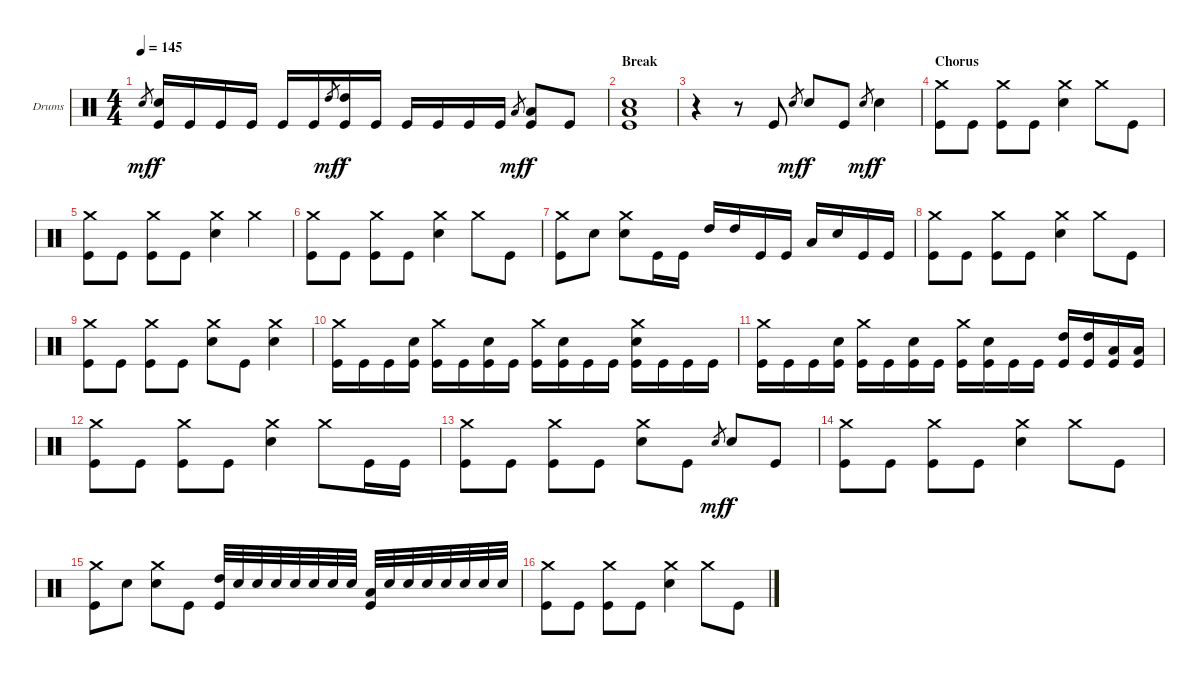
\bracketExtendMode groupsimilarinstruments
\firstSystemTrackNameOrientation horizontal
\otherSystemsTrackNameOrientation horizontal
\track ("Drumkit" "Drums") {instrument percussion}
\staff {score}
\articulation defaults
\ts (4 4)
\tempo 145
\clef neutral
\ks c "Snare (hit) 2".8{gr dy mf}
("Snare (hit) 2" "Kick (hit)").16{dy f} "Kick (hit)".16 "Kick (hit)".16 "Kick (hit)".16 "Kick (hit)".16 "Kick (hit)".16 "High Tom (hit)".8{gr dy mf} ("High Tom (hit)" "Kick (hit)").16{dy f} "Kick (hit)".16 "Kick (hit)".16 "Kick (hit)".16 "Kick (hit)".16 "Kick (hit)".16 "Low Tom (hit)".8{gr dy mf} ("Low Tom (hit)" "Kick (hit)").8{dy f} "Kick (hit)".8 |
\section ("" "Break")
("Snare (hit) 2" "Low Tom (hit)" "Kick (hit)").1 |
r.4 r.8 "Kick (hit)".8 "Snare (hit) 2".8{gr dy mf} "Snare (hit) 2".8{dy f} "Kick (hit)".8 "Snare (hit) 2".8{gr dy mf} "Snare (hit) 2".4{dy f} |
\section ("" "Chorus")
("Crash medium (hit)" "Kick (hit)").8 "Kick (hit)".8 ("Crash medium (hit)" "Kick (hit)").8 "Kick (hit)".8 ("Crash medium (hit)" "Snare (hit) 2").4 "Crash medium (hit)".8 "Kick (hit)".8 |
("Crash medium (hit)" "Kick (hit)").8 "Kick (hit)".8 ("Crash medium (hit)" "Kick (hit)").8 "Kick (hit)".8 ("Crash medium (hit)" "Snare (hit) 2").4 "Crash medium (hit)".4 |
("Crash medium (hit)" "Kick (hit)").8 "Kick (hit)".8 ("Crash medium (hit)" "Kick (hit)").8 "Kick (hit)".8 ("Crash medium (hit)" "Snare (hit) 2").4 "Crash medium (hit)".8 "Kick (hit)".8 |
("Crash medium (hit)" "Kick (hit)").8 "Snare (hit) 2".8 ("Crash medium (hit)" "Snare (hit) 2").8 "Kick (hit)".16 "Kick (hit)".16 "High Tom (hit)".16 "High Tom (hit)".16 "Kick (hit)".16 "Kick (hit)".16 "Low Tom (hit)".16 "Snare (hit) 2".16 "Kick (hit)".16 "Kick (hit)".16 |
("Crash medium (hit)" "Kick (hit)").8 "Kick (hit)".8 ("Crash medium (hit)" "Kick (hit)").8 "Kick (hit)".8 ("Crash medium (hit)" "Snare (hit) 2").4 "Crash medium (hit)".8 "Kick (hit)".8 |
("Crash medium (hit)" "Kick (hit)").8 "Kick (hit)".8 ("Crash medium (hit)" "Kick (hit)").8 "Kick (hit)".8 ("Crash medium (hit)" "Snare (hit) 2").8 "Kick (hit)".8 ("Crash medium (hit)" "Snare (hit) 2").4 |
("Crash medium (hit)" "Kick (hit)").16 "Kick (hit)".16 "Kick (hit)".16 ("Snare (hit) 2" "Kick (hit)").16 ("Crash medium (hit)" "Kick (hit)").16 "Kick (hit)".16 ("Snare (hit) 2" "Kick (hit)").16 "Kick (hit)".16 ("Crash medium (hit)" "Kick (hit)").16 ("Snare (hit) 2" "Kick (hit)").16 "Kick (hit)".16 "Kick (hit)".16 ("Crash medium (hit)" "Snare (hit) 2" "Kick (hit)").16 "Kick (hit)".16 "Kick (hit)".16 "Kick (hit)".16 |
("Crash medium (hit)" "Kick (hit)").16 "Kick (hit)".16 "Kick (hit)".16 ("Snare (hit) 2" "Kick (hit)").16 ("Crash medium (hit)" "Kick (hit)").16 "Kick (hit)".16 ("Snare (hit) 2" "Kick (hit)").16 "Kick (hit)".16 ("Crash medium (hit)" "Kick (hit)").16 ("Snare (hit) 2" "Kick (hit)").16 "Kick (hit)".16 "Kick (hit)".16 ("High Tom (hit)" "Kick (hit)").16 ("High Tom (hit)" "Kick (hit)").16 ("Low Tom (hit)" "Kick (hit)").16 ("Low Tom (hit)" "Kick (hit)").16 |
("Crash medium (hit)" "Kick (hit)").8 "Kick (hit)".8 ("Crash medium (hit)" "Kick (hit)").8 "Kick (hit)".8 ("Crash medium (hit)" "Snare (hit) 2").4 "Crash medium (hit)".8 "Kick (hit)".16 "Kick (hit)".16 |
("Crash medium (hit)" "Kick (hit)").8 "Kick (hit)".8 ("Crash medium (hit)" "Kick (hit)").8 "Kick (hit)".8 ("Crash medium (hit)" "Snare (hit) 2").8 "Kick (hit)".8 "Snare (hit) 2".8{gr dy mf} "Snare (hit) 2".8{dy f} "Kick (hit)".8 |
("Crash medium (hit)" "Kick (hit)").8 "Kick (hit)".8 ("Crash medium (hit)" "Kick (hit)").8 "Kick (hit)".8 ("Crash medium (hit)" "Snare (hit) 2").4 "Crash medium (hit)".8 "Kick (hit)".8 |
("Crash medium (hit)" "Kick (hit)").8 "Snare (hit) 2".8 ("Crash medium (hit)" "Snare (hit) 2").8 "Kick (hit)".8 ("High Tom (hit)" "Kick (hit)").32 "Snare (hit) 2".32 "Snare (hit) 2".32 "Snare (hit) 2".32 "Snare (hit) 2".32 "Snare (hit) 2".32 "Snare (hit) 2".32 "Snare (hit) 2".32 ("Low Tom (hit)" "Kick (hit)").32 "Snare (hit) 2".32 "Snare (hit) 2".32 "Snare (hit) 2".32 "Snare (hit) 2".32 "Snare (hit) 2".32 "Snare (hit) 2".32 "Snare (hit) 2".32 |
("Crash medium (hit)" "Kick (hit)").8 "Kick (hit)".8 ("Crash medium (hit)" "Kick (hit)").8 "Kick (hit)".8 ("Crash medium (hit)" "Snare (hit) 2").4 "Crash medium (hit)".8 "Kick (hit)".8
